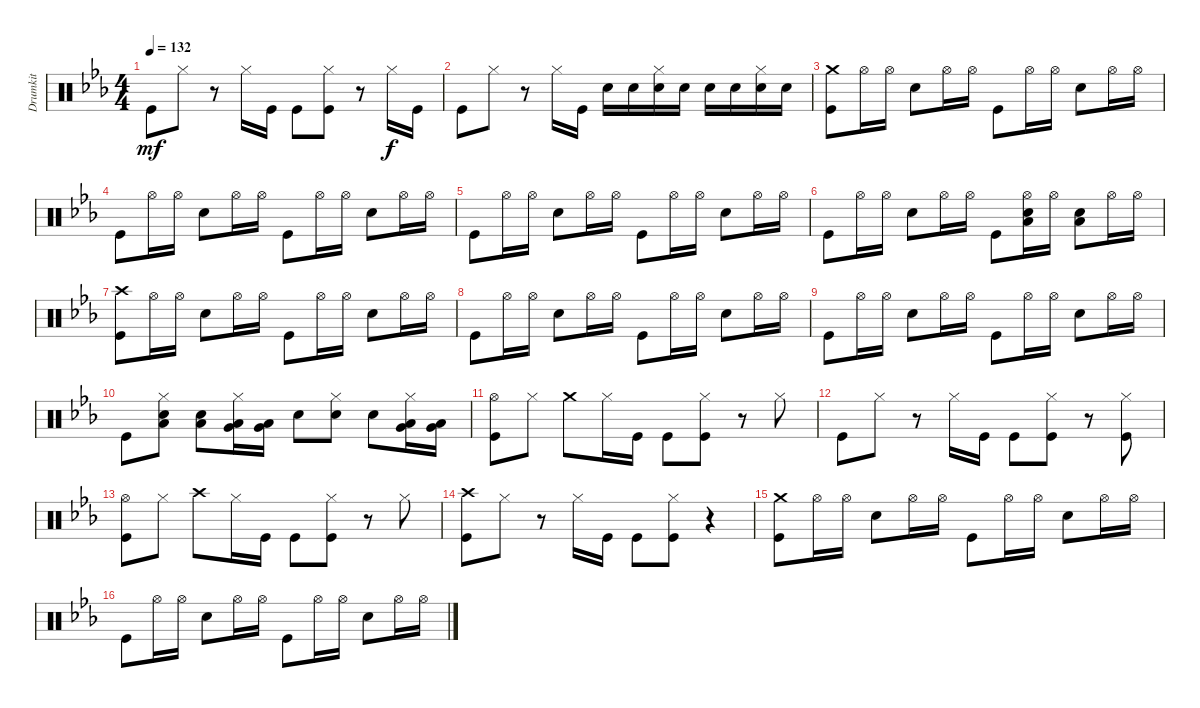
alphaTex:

\track ("Drumkit" "Drumkit") {instrument percussion}
\staff {score}
\articulation defaults
\ts (4 4)
\tempo 132
\clef neutral
\ks eb "Kick (hit)".8{dy mf} "Hi-Hat (closed)".8
r.8 "Hi-Hat (closed)".16 "Kick (hit)".16 "Kick (hit)".8 ("Hi-Hat (closed)" "Kick (hit)").8 r.8 "Hi-Hat (closed)".16{dy f} "Kick (hit)".16 |
"Kick (hit)".8 "Hi-Hat (closed)".8 r.8 "Hi-Hat (closed)".16 "Kick (hit)".16 "Snare (hit) 2".16 "Snare (hit) 2".16 ("Snare (hit) 2" "Hi-Hat (closed)").16 "Snare (hit) 2".16 "Snare (hit) 2".16 "Snare (hit) 2".16 ("Snare (hit) 2" "Hi-Hat (closed)").16 "Snare (hit) 2".16 |
("Kick (hit)" "Crash medium (hit)").8 "Hi-Hat (open)".16 "Hi-Hat (open)".16 "Snare (hit) 2".8 "Hi-Hat (open)".16 "Hi-Hat (open)".16 "Kick (hit)".8 "Hi-Hat (open)".16 "Hi-Hat (open)".16 "Snare (hit) 2".8 "Hi-Hat (open)".16 "Hi-Hat (open)".16 |
"Kick (hit)".8 "Hi-Hat (open)".16 "Hi-Hat (open)".16 "Snare (hit) 2".8 "Hi-Hat (open)".16 "Hi-Hat (open)".16 "Kick (hit)".8 "Hi-Hat (open)".16 "Hi-Hat (open)".16 "Snare (hit) 2".8 "Hi-Hat (open)".16 "Hi-Hat (open)".16 |
"Kick (hit)".8 "Hi-Hat (open)".16 "Hi-Hat (open)".16 "Snare (hit) 2".8 "Hi-Hat (open)".16 "Hi-Hat (open)".16 "Kick (hit)".8 "Hi-Hat (open)".16 "Hi-Hat (open)".16 "Snare (hit) 2".8 "Hi-Hat (open)".16 "Hi-Hat (open)".16 |
"Kick (hit)".8 "Hi-Hat (open)".16 "Hi-Hat (open)".16 "Snare (hit) 2".8 "Hi-Hat (open)".16 "Hi-Hat (open)".16 "Kick (hit)".8 ("Hi-Hat (open)" "Snare (hit) 2" "Low Floor Tom (hit)").16 "Hi-Hat (open)".16 ("Snare (hit) 2" "Low Floor Tom (hit)").8 "Hi-Hat (open)".16 "Hi-Hat (open)".16 |
("Kick (hit)" "Crash high (hit)").8 "Hi-Hat (open)".16 "Hi-Hat (open)".16 "Snare (hit) 2".8 "Hi-Hat (open)".16 "Hi-Hat (open)".16 "Kick (hit)".8 "Hi-Hat (open)".16 "Hi-Hat (open)".16 "Snare (hit) 2".8 "Hi-Hat (open)".16 "Hi-Hat (open)".16 |
"Kick (hit)".8 "Hi-Hat (open)".16 "Hi-Hat (open)".16 "Snare (hit) 2".8 "Hi-Hat (open)".16 "Hi-Hat (open)".16 "Kick (hit)".8 "Hi-Hat (open)".16 "Hi-Hat (open)".16 "Snare (hit) 2".8 "Hi-Hat (open)".16 "Hi-Hat (open)".16 |
"Kick (hit)".8 "Hi-Hat (open)".16 "Hi-Hat (open)".16 "Snare (hit) 2".8 "Hi-Hat (open)".16 "Hi-Hat (open)".16 "Kick (hit)".8 "Hi-Hat (open)".16 "Hi-Hat (open)".16 "Snare (hit) 2".8 "Hi-Hat (open)".16 "Hi-Hat (open)".16 |
"Kick (hit)".8 ("Snare (hit) 2" "Low Floor Tom (hit)" "Hi-Hat (closed)").8 ("Snare (hit) 2" "Low Floor Tom (hit)").8 ("Very Low Tom (hit)" "Low Tom (hit)" "Hi-Hat (closed)").16 ("Very Low Tom (hit)" "Low Floor Tom (hit)").16 "Snare (hit) 2".8 ("Snare (hit) 2" "Hi-Hat (closed)").8 "Snare (hit) 2".8 ("Low Tom (hit)" "Very Low Tom (hit)" "Hi-Hat (closed)").16 ("Low Floor Tom (hit)" "Very Low Tom (hit)").16 |
("Hi-Hat (open)" "Kick (hit)").8 "Hi-Hat (closed)".8 "Crash medium (hit)".8 "Hi-Hat (closed)".16 "Kick (hit)".16 "Kick (hit)".8 ("Hi-Hat (closed)" "Kick (hit)").8 r.8 "Hi-Hat (closed)".8 |
"Kick (hit)".8 "Hi-Hat (closed)".8 r.8 "Hi-Hat (closed)".16 "Kick (hit)".16 "Kick (hit)".8 ("Hi-Hat (closed)" "Kick (hit)").8 r.8 ("Hi-Hat (closed)" "Kick (hit)").8 |
("Kick (hit)" "Hi-Hat (open)").8 "Hi-Hat (closed)".8 "Crash high (hit)".8 "Hi-Hat (closed)".16 "Kick (hit)".16 "Kick (hit)".8 ("Hi-Hat (closed)" "Kick (hit)").8 r.8 "Hi-Hat (closed)".8 |
("Kick (hit)" "Crash high (hit)").8 "Hi-Hat (closed)".8 r.8 "Hi-Hat (closed)".16 "Kick (hit)".16 "Kick (hit)".8 ("Hi-Hat (closed)" "Kick (hit)").8 r.4 |
("Kick (hit)" "Crash medium (hit)").8 "Hi-Hat (open)".16 "Hi-Hat (open)".16 "Snare (hit) 2".8 "Hi-Hat (open)".16 "Hi-Hat (open)".16 "Kick (hit)".8 "Hi-Hat (open)".16 "Hi-Hat (open)".16 "Snare (hit) 2".8 "Hi-Hat (open)".16 "Hi-Hat (open)".16 |
"Kick (hit)".8 "Hi-Hat (open)".16 "Hi-Hat (open)".16 "Snare (hit) 2".8 "Hi-Hat (open)".16 "Hi-Hat (open)".16 "Kick (hit)".8 "Hi-Hat (open)".16 "Hi-Hat (open)".16 "Snare (hit) 2".8 "Hi-Hat (open)".16 "Hi-Hat (open)".16
